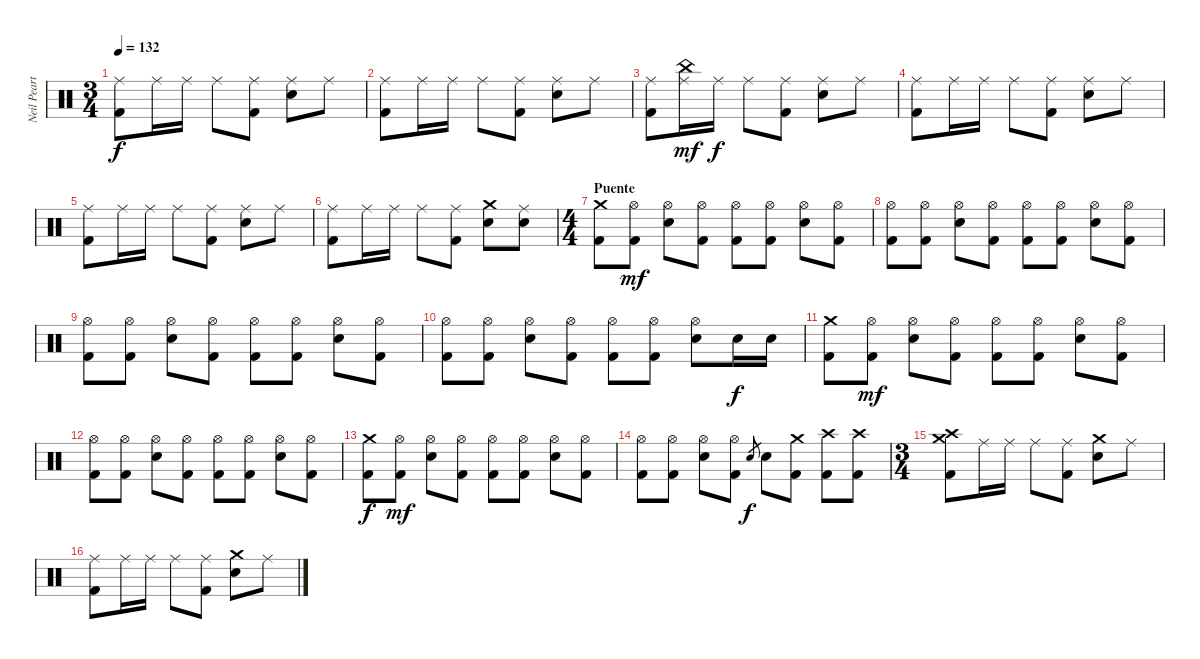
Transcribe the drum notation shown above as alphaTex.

\track ("Neil Peart" "Neil Peart") {instrument percussion}
\staff {score}
\articulation defaults
\ts (3 4)
\tempo 132
\clef neutral
\ks c
("Ride (middle)" "Kick (hit) 2").8{dy f} "Ride (middle)".16 "Ride (middle)".16 "Ride (middle)".8 ("Ride (middle)" "Kick (hit) 2").8 ("Ride (middle)" "Electric Snare (hit)").8 "Ride (middle)".8 |
("Ride (middle)" "Kick (hit) 2").8 "Ride (middle)".16 "Ride (middle)".16 "Ride (middle)".8 ("Ride (middle)" "Kick (hit) 2").8 ("Ride (middle)" "Electric Snare (hit)").8 "Ride (middle)".8 |
("Ride (middle)" "Kick (hit) 2").8 ("Ride (middle)" "China (hit)").16{dy mf} "Ride (middle)".16{dy f} "Ride (middle)".8 ("Ride (middle)" "Kick (hit) 2").8 ("Ride (middle)" "Electric Snare (hit)").8 "Ride (middle)".8 |
("Ride (middle)" "Kick (hit) 2").8 "Ride (middle)".16 "Ride (middle)".16 "Ride (middle)".8 ("Ride (middle)" "Kick (hit) 2").8 ("Ride (middle)" "Electric Snare (hit)").8 "Ride (middle)".8 |
("Ride (middle)" "Kick (hit) 2").8 "Ride (middle)".16 "Ride (middle)".16 "Ride (middle)".8 ("Ride (middle)" "Kick (hit) 2").8 ("Ride (middle)" "Electric Snare (hit)").8 "Ride (middle)".8 |
("Ride (middle)" "Kick (hit) 2").8 "Ride (middle)".16 "Ride (middle)".16 "Ride (middle)".8 ("Ride (middle)" "Kick (hit) 2").8 ("Crash medium (hit)" "Electric Snare (hit)").8 ("Ride (middle)" "Electric Snare (hit)").8 |
\ts (4 4)
\section ("" "Puente")
("Crash medium (hit)" "Kick (hit) 2").8 ("Hi-Hat (open)" "Kick (hit) 2").8{dy mf} ("Hi-Hat (open)" "Electric Snare (hit)").8 ("Hi-Hat (open)" "Kick (hit) 2").8 ("Hi-Hat (open)" "Kick (hit) 2").8 ("Hi-Hat (open)" "Kick (hit) 2").8 ("Hi-Hat (open)" "Electric Snare (hit)").8 ("Hi-Hat (open)" "Kick (hit) 2").8 |
("Hi-Hat (open)" "Kick (hit) 2").8 ("Hi-Hat (open)" "Kick (hit) 2").8 ("Hi-Hat (open)" "Electric Snare (hit)").8 ("Hi-Hat (open)" "Kick (hit) 2").8 ("Hi-Hat (open)" "Kick (hit) 2").8 ("Hi-Hat (open)" "Kick (hit) 2").8 ("Hi-Hat (open)" "Electric Snare (hit)").8 ("Hi-Hat (open)" "Kick (hit) 2").8 |
("Hi-Hat (open)" "Kick (hit) 2").8 ("Hi-Hat (open)" "Kick (hit) 2").8 ("Hi-Hat (open)" "Electric Snare (hit)").8 ("Hi-Hat (open)" "Kick (hit) 2").8 ("Hi-Hat (open)" "Kick (hit) 2").8 ("Hi-Hat (open)" "Kick (hit) 2").8 ("Hi-Hat (open)" "Electric Snare (hit)").8 ("Hi-Hat (open)" "Kick (hit) 2").8 |
("Hi-Hat (open)" "Kick (hit) 2").8 ("Hi-Hat (open)" "Kick (hit) 2").8 ("Hi-Hat (open)" "Electric Snare (hit)").8 ("Hi-Hat (open)" "Kick (hit) 2").8 ("Hi-Hat (open)" "Kick (hit) 2").8 ("Hi-Hat (open)" "Kick (hit) 2").8 ("Hi-Hat (open)" "Electric Snare (hit)").8 "Electric Snare (hit)".16{dy f} "Electric Snare (hit)".16 |
("Crash medium (hit)" "Kick (hit) 2").8 ("Hi-Hat (open)" "Kick (hit) 2").8{dy mf} ("Hi-Hat (open)" "Electric Snare (hit)").8 ("Hi-Hat (open)" "Kick (hit) 2").8 ("Hi-Hat (open)" "Kick (hit) 2").8 ("Hi-Hat (open)" "Kick (hit) 2").8 ("Hi-Hat (open)" "Electric Snare (hit)").8 ("Hi-Hat (open)" "Kick (hit) 2").8 |
("Hi-Hat (open)" "Kick (hit) 2").8 ("Hi-Hat (open)" "Kick (hit) 2").8 ("Hi-Hat (open)" "Electric Snare (hit)").8 ("Hi-Hat (open)" "Kick (hit) 2").8 ("Hi-Hat (open)" "Kick (hit) 2").8 ("Hi-Hat (open)" "Kick (hit) 2").8 ("Hi-Hat (open)" "Electric Snare (hit)").8 ("Hi-Hat (open)" "Kick (hit) 2").8 |
("Crash medium (hit)" "Kick (hit) 2").8{dy f} ("Hi-Hat (open)" "Kick (hit) 2").8{dy mf} ("Hi-Hat (open)" "Electric Snare (hit)").8 ("Hi-Hat (open)" "Kick (hit) 2").8 ("Hi-Hat (open)" "Kick (hit) 2").8 ("Hi-Hat (open)" "Kick (hit) 2").8 ("Hi-Hat (open)" "Electric Snare (hit)").8 ("Hi-Hat (open)" "Kick (hit) 2").8 |
("Hi-Hat (open)" "Kick (hit) 2").8 ("Hi-Hat (open)" "Kick (hit) 2").8 ("Hi-Hat (open)" "Electric Snare (hit)").8 ("Hi-Hat (open)" "Kick (hit) 2").8 "Electric Snare (hit)".8{gr dy f} "Electric Snare (hit)".8 ("Crash medium (hit)" "Kick (hit) 2").8 ("Crash high (hit)" "Kick (hit) 2").8 ("Crash high (hit)" "Kick (hit) 2").8 |
\ts (3 4)
("Crash medium (hit)" "Crash high (hit)" "Kick (hit) 2").8 "Ride (middle)".16 "Ride (middle)".16 "Ride (middle)".8 ("Ride (middle)" "Kick (hit) 2").8 ("Crash medium (hit)" "Electric Snare (hit)").8 "Ride (middle)".8 |
("Ride (middle)" "Kick (hit) 2").8 "Ride (middle)".16 "Ride (middle)".16 "Ride (middle)".8 ("Ride (middle)" "Kick (hit) 2").8 ("Crash medium (hit)" "Electric Snare (hit)").8 "Ride (middle)".8
